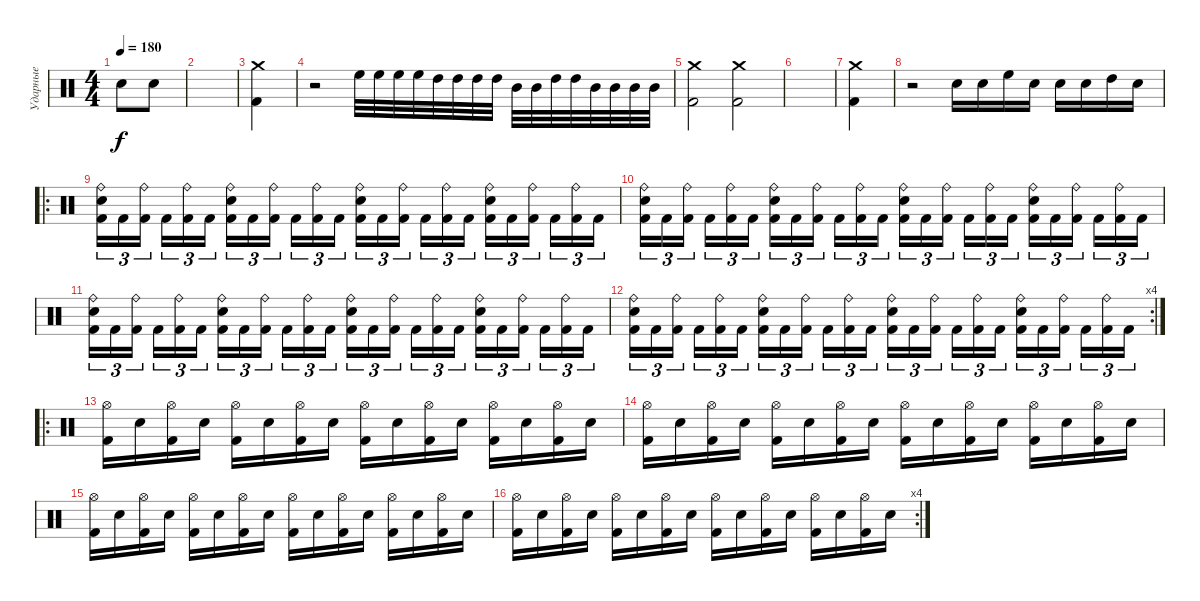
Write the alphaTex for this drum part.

\track ("Ударные" "Ударные") {instrument percussion}
\staff {score}
\articulation defaults
\ts (4 4)
\tempo 180
\clef neutral
\ks c "Electric Snare (hit)".8{dy f} "Electric Snare (hit)".8
|
|
("Kick (hit) 2" "Crash medium (hit)").4 |
r.2 "High Floor Tom (hit)".32 "High Floor Tom (hit)".32 "High Floor Tom (hit)".32 "High Floor Tom (hit)".32 "High Tom (hit)".32 "High Tom (hit)".32 "High Tom (hit)".32 "High Tom (hit)".32 "Mid Tom (hit)".32 "Mid Tom (hit)".32 "High Tom (hit)".32 "High Tom (hit)".32 "Mid Tom (hit)".32 "Mid Tom (hit)".32 "Mid Tom (hit)".32 "Mid Tom (hit)".32 |
("Crash medium (hit)" "Kick (hit) 2").2 ("Crash medium (hit)" "Kick (hit) 2").2 |
|
("Kick (hit) 2" "Crash medium (hit)").4 |
r.2 "Electric Snare (hit)".16 "Electric Snare (hit)".16 "High Floor Tom (hit)".16 "Electric Snare (hit)".16 "Electric Snare (hit)".16 "Electric Snare (hit)".16 "High Tom (hit)".16 "Electric Snare (hit)".16 |
\ro
("Kick (hit) 2" "Ride (bell)" "Electric Snare (hit)").16{tu (3 2)} "Kick (hit) 2".16{tu (3 2)} ("Kick (hit) 2" "Ride (bell)").16{tu (3 2) beam splitsecondary} "Kick (hit) 2".16{tu (3 2)} ("Kick (hit) 2" "Ride (bell)").16{tu (3 2)} "Kick (hit) 2".16{tu (3 2)} ("Kick (hit) 2" "Ride (bell)" "Electric Snare (hit)").16{tu (3 2)} "Kick (hit) 2".16{tu (3 2)} ("Kick (hit) 2" "Ride (bell)").16{tu (3 2) beam splitsecondary} "Kick (hit) 2".16{tu (3 2)} ("Kick (hit) 2" "Ride (bell)").16{tu (3 2)} "Kick (hit) 2".16{tu (3 2)} ("Kick (hit) 2" "Ride (bell)" "Electric Snare (hit)").16{tu (3 2)} "Kick (hit) 2".16{tu (3 2)} ("Kick (hit) 2" "Ride (bell)").16{tu (3 2) beam splitsecondary} "Kick (hit) 2".16{tu (3 2)} ("Kick (hit) 2" "Ride (bell)").16{tu (3 2)} "Kick (hit) 2".16{tu (3 2)} ("Kick (hit) 2" "Ride (bell)" "Electric Snare (hit)").16{tu (3 2)} "Kick (hit) 2".16{tu (3 2)} ("Kick (hit) 2" "Ride (bell)").16{tu (3 2) beam splitsecondary} "Kick (hit) 2".16{tu (3 2)} ("Kick (hit) 2" "Ride (bell)").16{tu (3 2)} "Kick (hit) 2".16{tu (3 2)} |
("Kick (hit) 2" "Ride (bell)" "Electric Snare (hit)").16{tu (3 2)} "Kick (hit) 2".16{tu (3 2)} ("Kick (hit) 2" "Ride (bell)").16{tu (3 2) beam splitsecondary} "Kick (hit) 2".16{tu (3 2)} ("Kick (hit) 2" "Ride (bell)").16{tu (3 2)} "Kick (hit) 2".16{tu (3 2)} ("Kick (hit) 2" "Ride (bell)" "Electric Snare (hit)").16{tu (3 2)} "Kick (hit) 2".16{tu (3 2)} ("Kick (hit) 2" "Ride (bell)").16{tu (3 2) beam splitsecondary} "Kick (hit) 2".16{tu (3 2)} ("Kick (hit) 2" "Ride (bell)").16{tu (3 2)} "Kick (hit) 2".16{tu (3 2)} ("Kick (hit) 2" "Ride (bell)" "Electric Snare (hit)").16{tu (3 2)} "Kick (hit) 2".16{tu (3 2)} ("Kick (hit) 2" "Ride (bell)").16{tu (3 2) beam splitsecondary} "Kick (hit) 2".16{tu (3 2)} ("Kick (hit) 2" "Ride (bell)").16{tu (3 2)} "Kick (hit) 2".16{tu (3 2)} ("Kick (hit) 2" "Ride (bell)" "Electric Snare (hit)").16{tu (3 2)} "Kick (hit) 2".16{tu (3 2)} ("Kick (hit) 2" "Ride (bell)").16{tu (3 2) beam splitsecondary} "Kick (hit) 2".16{tu (3 2)} ("Kick (hit) 2" "Ride (bell)").16{tu (3 2)} "Kick (hit) 2".16{tu (3 2)} |
("Kick (hit) 2" "Ride (bell)" "Electric Snare (hit)").16{tu (3 2)} "Kick (hit) 2".16{tu (3 2)} ("Kick (hit) 2" "Ride (bell)").16{tu (3 2) beam splitsecondary} "Kick (hit) 2".16{tu (3 2)} ("Kick (hit) 2" "Ride (bell)").16{tu (3 2)} "Kick (hit) 2".16{tu (3 2)} ("Kick (hit) 2" "Ride (bell)" "Electric Snare (hit)").16{tu (3 2)} "Kick (hit) 2".16{tu (3 2)} ("Kick (hit) 2" "Ride (bell)").16{tu (3 2) beam splitsecondary} "Kick (hit) 2".16{tu (3 2)} ("Kick (hit) 2" "Ride (bell)").16{tu (3 2)} "Kick (hit) 2".16{tu (3 2)} ("Kick (hit) 2" "Ride (bell)" "Electric Snare (hit)").16{tu (3 2)} "Kick (hit) 2".16{tu (3 2)} ("Kick (hit) 2" "Ride (bell)").16{tu (3 2) beam splitsecondary} "Kick (hit) 2".16{tu (3 2)} ("Kick (hit) 2" "Ride (bell)").16{tu (3 2)} "Kick (hit) 2".16{tu (3 2)} ("Kick (hit) 2" "Ride (bell)" "Electric Snare (hit)").16{tu (3 2)} "Kick (hit) 2".16{tu (3 2)} ("Kick (hit) 2" "Ride (bell)").16{tu (3 2) beam splitsecondary} "Kick (hit) 2".16{tu (3 2)} ("Kick (hit) 2" "Ride (bell)").16{tu (3 2)} "Kick (hit) 2".16{tu (3 2)} |
\rc 4
("Kick (hit) 2" "Ride (bell)" "Electric Snare (hit)").16{tu (3 2)} "Kick (hit) 2".16{tu (3 2)} ("Kick (hit) 2" "Ride (bell)").16{tu (3 2) beam splitsecondary} "Kick (hit) 2".16{tu (3 2)} ("Kick (hit) 2" "Ride (bell)").16{tu (3 2)} "Kick (hit) 2".16{tu (3 2)} ("Kick (hit) 2" "Ride (bell)" "Electric Snare (hit)").16{tu (3 2)} "Kick (hit) 2".16{tu (3 2)} ("Kick (hit) 2" "Ride (bell)").16{tu (3 2) beam splitsecondary} "Kick (hit) 2".16{tu (3 2)} ("Kick (hit) 2" "Ride (bell)").16{tu (3 2)} "Kick (hit) 2".16{tu (3 2)} ("Kick (hit) 2" "Ride (bell)" "Electric Snare (hit)").16{tu (3 2)} "Kick (hit) 2".16{tu (3 2)} ("Kick (hit) 2" "Ride (bell)").16{tu (3 2) beam splitsecondary} "Kick (hit) 2".16{tu (3 2)} ("Kick (hit) 2" "Ride (bell)").16{tu (3 2)} "Kick (hit) 2".16{tu (3 2)} ("Kick (hit) 2" "Ride (bell)" "Electric Snare (hit)").16{tu (3 2)} "Kick (hit) 2".16{tu (3 2)} ("Kick (hit) 2" "Ride (bell)").16{tu (3 2) beam splitsecondary} "Kick (hit) 2".16{tu (3 2)} ("Kick (hit) 2" "Ride (bell)").16{tu (3 2)} "Kick (hit) 2".16{tu (3 2)} |
\ro
("Kick (hit) 2" "Hi-Hat (open)").16 "Electric Snare (hit)".16 ("Kick (hit) 2" "Hi-Hat (open)").16 "Electric Snare (hit)".16 ("Kick (hit) 2" "Hi-Hat (open)").16 "Electric Snare (hit)".16 ("Kick (hit) 2" "Hi-Hat (open)").16 "Electric Snare (hit)".16 ("Kick (hit) 2" "Hi-Hat (open)").16 "Electric Snare (hit)".16 ("Kick (hit) 2" "Hi-Hat (open)").16 "Electric Snare (hit)".16 ("Kick (hit) 2" "Hi-Hat (open)").16 "Electric Snare (hit)".16 ("Kick (hit) 2" "Hi-Hat (open)").16 "Electric Snare (hit)".16 |
("Kick (hit) 2" "Hi-Hat (open)").16 "Electric Snare (hit)".16 ("Kick (hit) 2" "Hi-Hat (open)").16 "Electric Snare (hit)".16 ("Kick (hit) 2" "Hi-Hat (open)").16 "Electric Snare (hit)".16 ("Kick (hit) 2" "Hi-Hat (open)").16 "Electric Snare (hit)".16 ("Kick (hit) 2" "Hi-Hat (open)").16 "Electric Snare (hit)".16 ("Kick (hit) 2" "Hi-Hat (open)").16 "Electric Snare (hit)".16 ("Kick (hit) 2" "Hi-Hat (open)").16 "Electric Snare (hit)".16 ("Kick (hit) 2" "Hi-Hat (open)").16 "Electric Snare (hit)".16 |
("Kick (hit) 2" "Hi-Hat (open)").16 "Electric Snare (hit)".16 ("Kick (hit) 2" "Hi-Hat (open)").16 "Electric Snare (hit)".16 ("Kick (hit) 2" "Hi-Hat (open)").16 "Electric Snare (hit)".16 ("Kick (hit) 2" "Hi-Hat (open)").16 "Electric Snare (hit)".16 ("Kick (hit) 2" "Hi-Hat (open)").16 "Electric Snare (hit)".16 ("Kick (hit) 2" "Hi-Hat (open)").16 "Electric Snare (hit)".16 ("Kick (hit) 2" "Hi-Hat (open)").16 "Electric Snare (hit)".16 ("Kick (hit) 2" "Hi-Hat (open)").16 "Electric Snare (hit)".16 |
\rc 4
("Kick (hit) 2" "Hi-Hat (open)").16 "Electric Snare (hit)".16 ("Kick (hit) 2" "Hi-Hat (open)").16 "Electric Snare (hit)".16 ("Kick (hit) 2" "Hi-Hat (open)").16 "Electric Snare (hit)".16 ("Kick (hit) 2" "Hi-Hat (open)").16 "Electric Snare (hit)".16 ("Kick (hit) 2" "Hi-Hat (open)").16 "Electric Snare (hit)".16 ("Kick (hit) 2" "Hi-Hat (open)").16 "Electric Snare (hit)".16 ("Kick (hit) 2" "Hi-Hat (open)").16 "Electric Snare (hit)".16 ("Kick (hit) 2" "Hi-Hat (open)").16 "Electric Snare (hit)".16
